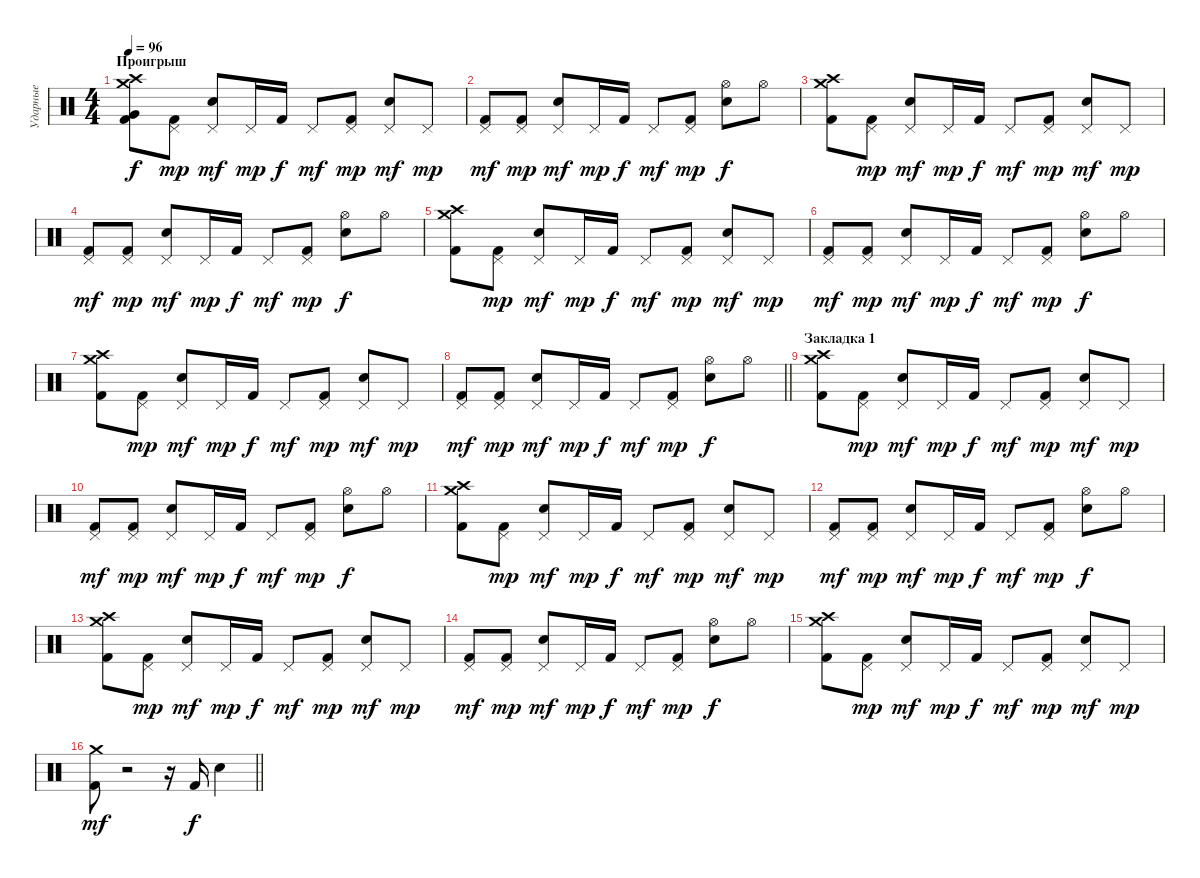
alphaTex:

\track ("Ударные" "Ударные") {instrument percussion}
\staff {score}
\articulation defaults
\ts (4 4)
\section ("" "Проигрыш")
\tempo 96
\clef neutral
\ks c
("Crash high (hit)" "Crash medium (hit)" "Very Low Tom (hit)" "Kick (hit) 2").8{dy f} ("Kick (hit) 2" "Pedal Hi-Hat (hit)").8{dy mp} ("Snare (hit) 2" "Pedal Hi-Hat (hit)").8{dy mf} "Pedal Hi-Hat (hit)".16{dy mp} "Kick (hit) 2".16{dy f} "Pedal Hi-Hat (hit)".8{dy mf} ("Kick (hit) 2" "Pedal Hi-Hat (hit)").8{dy mp} ("Snare (hit) 2" "Pedal Hi-Hat (hit)").8{dy mf} "Pedal Hi-Hat (hit)".8{dy mp} |
("Kick (hit) 2" "Pedal Hi-Hat (hit)").8{dy mf} ("Kick (hit) 2" "Pedal Hi-Hat (hit)").8{dy mp} ("Snare (hit) 2" "Pedal Hi-Hat (hit)").8{dy mf} "Pedal Hi-Hat (hit)".16{dy mp} "Kick (hit) 2".16{dy f} "Pedal Hi-Hat (hit)".8{dy mf} ("Kick (hit) 2" "Pedal Hi-Hat (hit)").8{dy mp} ("Snare (hit) 2" "Hi-Hat (open)").8{dy f} "Hi-Hat (open)".8 |
("Crash high (hit)" "Crash medium (hit)" "Kick (hit) 2").8 ("Kick (hit) 2" "Pedal Hi-Hat (hit)").8{dy mp} ("Snare (hit) 2" "Pedal Hi-Hat (hit)").8{dy mf} "Pedal Hi-Hat (hit)".16{dy mp} "Kick (hit) 2".16{dy f} "Pedal Hi-Hat (hit)".8{dy mf} ("Kick (hit) 2" "Pedal Hi-Hat (hit)").8{dy mp} ("Snare (hit) 2" "Pedal Hi-Hat (hit)").8{dy mf} "Pedal Hi-Hat (hit)".8{dy mp} |
("Kick (hit) 2" "Pedal Hi-Hat (hit)").8{dy mf} ("Kick (hit) 2" "Pedal Hi-Hat (hit)").8{dy mp} ("Snare (hit) 2" "Pedal Hi-Hat (hit)").8{dy mf} "Pedal Hi-Hat (hit)".16{dy mp} "Kick (hit) 2".16{dy f} "Pedal Hi-Hat (hit)".8{dy mf} ("Kick (hit) 2" "Pedal Hi-Hat (hit)").8{dy mp} ("Snare (hit) 2" "Hi-Hat (open)").8{dy f} "Hi-Hat (open)".8 |
("Crash high (hit)" "Crash medium (hit)" "Kick (hit) 2").8 ("Kick (hit) 2" "Pedal Hi-Hat (hit)").8{dy mp} ("Snare (hit) 2" "Pedal Hi-Hat (hit)").8{dy mf} "Pedal Hi-Hat (hit)".16{dy mp} "Kick (hit) 2".16{dy f} "Pedal Hi-Hat (hit)".8{dy mf} ("Kick (hit) 2" "Pedal Hi-Hat (hit)").8{dy mp} ("Snare (hit) 2" "Pedal Hi-Hat (hit)").8{dy mf} "Pedal Hi-Hat (hit)".8{dy mp} |
("Kick (hit) 2" "Pedal Hi-Hat (hit)").8{dy mf} ("Kick (hit) 2" "Pedal Hi-Hat (hit)").8{dy mp} ("Snare (hit) 2" "Pedal Hi-Hat (hit)").8{dy mf} "Pedal Hi-Hat (hit)".16{dy mp} "Kick (hit) 2".16{dy f} "Pedal Hi-Hat (hit)".8{dy mf} ("Kick (hit) 2" "Pedal Hi-Hat (hit)").8{dy mp} ("Snare (hit) 2" "Hi-Hat (open)").8{dy f} "Hi-Hat (open)".8 |
("Crash high (hit)" "Crash medium (hit)" "Kick (hit) 2").8 ("Kick (hit) 2" "Pedal Hi-Hat (hit)").8{dy mp} ("Snare (hit) 2" "Pedal Hi-Hat (hit)").8{dy mf} "Pedal Hi-Hat (hit)".16{dy mp} "Kick (hit) 2".16{dy f} "Pedal Hi-Hat (hit)".8{dy mf} ("Kick (hit) 2" "Pedal Hi-Hat (hit)").8{dy mp} ("Snare (hit) 2" "Pedal Hi-Hat (hit)").8{dy mf} "Pedal Hi-Hat (hit)".8{dy mp} |
\barLineRight lightlight
("Kick (hit) 2" "Pedal Hi-Hat (hit)").8{dy mf} ("Kick (hit) 2" "Pedal Hi-Hat (hit)").8{dy mp} ("Snare (hit) 2" "Pedal Hi-Hat (hit)").8{dy mf} "Pedal Hi-Hat (hit)".16{dy mp} "Kick (hit) 2".16{dy f} "Pedal Hi-Hat (hit)".8{dy mf} ("Kick (hit) 2" "Pedal Hi-Hat (hit)").8{dy mp} ("Snare (hit) 2" "Hi-Hat (open)").8{dy f} "Hi-Hat (open)".8 |
\section ("" "Закладка 1")
("Crash high (hit)" "Crash medium (hit)" "Kick (hit) 2").8 ("Kick (hit) 2" "Pedal Hi-Hat (hit)").8{dy mp} ("Snare (hit) 2" "Pedal Hi-Hat (hit)").8{dy mf} "Pedal Hi-Hat (hit)".16{dy mp} "Kick (hit) 2".16{dy f} "Pedal Hi-Hat (hit)".8{dy mf} ("Kick (hit) 2" "Pedal Hi-Hat (hit)").8{dy mp} ("Snare (hit) 2" "Pedal Hi-Hat (hit)").8{dy mf} "Pedal Hi-Hat (hit)".8{dy mp} |
("Kick (hit) 2" "Pedal Hi-Hat (hit)").8{dy mf} ("Kick (hit) 2" "Pedal Hi-Hat (hit)").8{dy mp} ("Snare (hit) 2" "Pedal Hi-Hat (hit)").8{dy mf} "Pedal Hi-Hat (hit)".16{dy mp} "Kick (hit) 2".16{dy f} "Pedal Hi-Hat (hit)".8{dy mf} ("Kick (hit) 2" "Pedal Hi-Hat (hit)").8{dy mp} ("Snare (hit) 2" "Hi-Hat (open)").8{dy f} "Hi-Hat (open)".8 |
("Crash high (hit)" "Crash medium (hit)" "Kick (hit) 2").8 ("Kick (hit) 2" "Pedal Hi-Hat (hit)").8{dy mp} ("Snare (hit) 2" "Pedal Hi-Hat (hit)").8{dy mf} "Pedal Hi-Hat (hit)".16{dy mp} "Kick (hit) 2".16{dy f} "Pedal Hi-Hat (hit)".8{dy mf} ("Kick (hit) 2" "Pedal Hi-Hat (hit)").8{dy mp} ("Snare (hit) 2" "Pedal Hi-Hat (hit)").8{dy mf} "Pedal Hi-Hat (hit)".8{dy mp} |
("Kick (hit) 2" "Pedal Hi-Hat (hit)").8{dy mf} ("Kick (hit) 2" "Pedal Hi-Hat (hit)").8{dy mp} ("Snare (hit) 2" "Pedal Hi-Hat (hit)").8{dy mf} "Pedal Hi-Hat (hit)".16{dy mp} "Kick (hit) 2".16{dy f} "Pedal Hi-Hat (hit)".8{dy mf} ("Kick (hit) 2" "Pedal Hi-Hat (hit)").8{dy mp} ("Snare (hit) 2" "Hi-Hat (open)").8{dy f} "Hi-Hat (open)".8 |
("Crash high (hit)" "Crash medium (hit)" "Kick (hit) 2").8 ("Kick (hit) 2" "Pedal Hi-Hat (hit)").8{dy mp} ("Snare (hit) 2" "Pedal Hi-Hat (hit)").8{dy mf} "Pedal Hi-Hat (hit)".16{dy mp} "Kick (hit) 2".16{dy f} "Pedal Hi-Hat (hit)".8{dy mf} ("Kick (hit) 2" "Pedal Hi-Hat (hit)").8{dy mp} ("Snare (hit) 2" "Pedal Hi-Hat (hit)").8{dy mf} "Pedal Hi-Hat (hit)".8{dy mp} |
("Kick (hit) 2" "Pedal Hi-Hat (hit)").8{dy mf} ("Kick (hit) 2" "Pedal Hi-Hat (hit)").8{dy mp} ("Snare (hit) 2" "Pedal Hi-Hat (hit)").8{dy mf} "Pedal Hi-Hat (hit)".16{dy mp} "Kick (hit) 2".16{dy f} "Pedal Hi-Hat (hit)".8{dy mf} ("Kick (hit) 2" "Pedal Hi-Hat (hit)").8{dy mp} ("Snare (hit) 2" "Hi-Hat (open)").8{dy f} "Hi-Hat (open)".8 |
("Crash high (hit)" "Crash medium (hit)" "Kick (hit) 2").8 ("Kick (hit) 2" "Pedal Hi-Hat (hit)").8{dy mp} ("Snare (hit) 2" "Pedal Hi-Hat (hit)").8{dy mf} "Pedal Hi-Hat (hit)".16{dy mp} "Kick (hit) 2".16{dy f} "Pedal Hi-Hat (hit)".8{dy mf} ("Kick (hit) 2" "Pedal Hi-Hat (hit)").8{dy mp} ("Snare (hit) 2" "Pedal Hi-Hat (hit)").8{dy mf} "Pedal Hi-Hat (hit)".8{dy mp} |
\barLineRight lightlight
("Kick (hit) 2" "Crash medium (hit)").8{dy mf} r.2 r.16 "Kick (hit) 2".16{dy f} "Electric Snare (hit)".4
